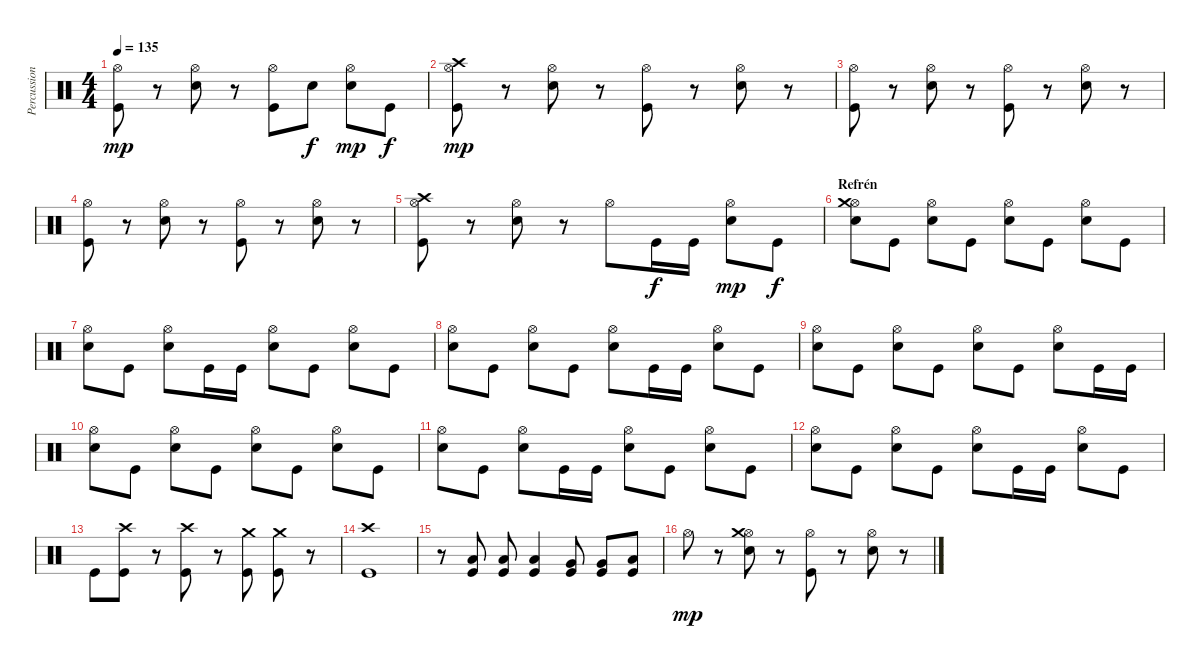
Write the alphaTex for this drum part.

\track ("Percussion" "Percussion") {instrument percussion}
\staff {score}
\articulation defaults
\ts (4 4)
\tempo 135
\clef neutral
\ks c
("Hi-Hat (open)" "Kick (hit)").8{dy mp} r.8 ("Hi-Hat (open)" "Snare (hit) 2").8 r.8 ("Hi-Hat (open)" "Kick (hit)").8 "Snare (hit) 2".8{dy f} ("Hi-Hat (open)" "Snare (hit) 2").8{dy mp} "Kick (hit)".8{dy f} |
("Hi-Hat (open)" "Crash high (hit)" "Kick (hit)").8{dy mp} r.8 ("Hi-Hat (open)" "Snare (hit) 2").8 r.8 ("Hi-Hat (open)" "Kick (hit)").8 r.8 ("Hi-Hat (open)" "Snare (hit) 2").8 r.8 |
("Hi-Hat (open)" "Kick (hit)").8 r.8 ("Hi-Hat (open)" "Snare (hit) 2").8 r.8 ("Hi-Hat (open)" "Kick (hit)").8 r.8 ("Hi-Hat (open)" "Snare (hit) 2").8 r.8 |
("Hi-Hat (open)" "Kick (hit)").8 r.8 ("Hi-Hat (open)" "Snare (hit) 2").8 r.8 ("Hi-Hat (open)" "Kick (hit)").8 r.8 ("Hi-Hat (open)" "Snare (hit) 2").8 r.8 |
("Hi-Hat (open)" "Crash high (hit)" "Kick (hit)").8 r.8 ("Hi-Hat (open)" "Snare (hit) 2").8 r.8 "Hi-Hat (open)".8 "Kick (hit)".16{dy f} "Kick (hit)".16 ("Hi-Hat (open)" "Snare (hit) 2").8{dy mp} "Kick (hit)".8{dy f} |
\section ("" "Refrén")
("Hi-Hat (open)" "Crash medium (hit)" "Snare (hit) 2").8 "Kick (hit)".8 ("Hi-Hat (open)" "Snare (hit) 2").8 "Kick (hit)".8 ("Hi-Hat (open)" "Snare (hit) 2").8 "Kick (hit)".8 ("Hi-Hat (open)" "Snare (hit) 2").8 "Kick (hit)".8 |
("Hi-Hat (open)" "Snare (hit) 2").8 "Kick (hit)".8 ("Hi-Hat (open)" "Snare (hit) 2").8 "Kick (hit)".16 "Kick (hit)".16 ("Hi-Hat (open)" "Snare (hit) 2").8 "Kick (hit)".8 ("Hi-Hat (open)" "Snare (hit) 2").8 "Kick (hit)".8 |
("Hi-Hat (open)" "Snare (hit) 2").8 "Kick (hit)".8 ("Hi-Hat (open)" "Snare (hit) 2").8 "Kick (hit)".8 ("Hi-Hat (open)" "Snare (hit) 2").8 "Kick (hit)".16 "Kick (hit)".16 ("Hi-Hat (open)" "Snare (hit) 2").8 "Kick (hit)".8 |
("Hi-Hat (open)" "Snare (hit) 2").8 "Kick (hit)".8 ("Hi-Hat (open)" "Snare (hit) 2").8 "Kick (hit)".8 ("Hi-Hat (open)" "Snare (hit) 2").8 "Kick (hit)".8 ("Hi-Hat (open)" "Snare (hit) 2").8 "Kick (hit)".16 "Kick (hit)".16 |
("Hi-Hat (open)" "Snare (hit) 2").8 "Kick (hit)".8 ("Hi-Hat (open)" "Snare (hit) 2").8 "Kick (hit)".8 ("Hi-Hat (open)" "Snare (hit) 2").8 "Kick (hit)".8 ("Hi-Hat (open)" "Snare (hit) 2").8 "Kick (hit)".8 |
("Hi-Hat (open)" "Snare (hit) 2").8 "Kick (hit)".8 ("Hi-Hat (open)" "Snare (hit) 2").8 "Kick (hit)".16 "Kick (hit)".16 ("Hi-Hat (open)" "Snare (hit) 2").8 "Kick (hit)".8 ("Hi-Hat (open)" "Snare (hit) 2").8 "Kick (hit)".8 |
("Hi-Hat (open)" "Snare (hit) 2").8 "Kick (hit)".8 ("Hi-Hat (open)" "Snare (hit) 2").8 "Kick (hit)".8 ("Hi-Hat (open)" "Snare (hit) 2").8 "Kick (hit)".16 "Kick (hit)".16 ("Hi-Hat (open)" "Snare (hit) 2").8 "Kick (hit)".8 |
"Kick (hit)".8 ("Crash high (hit)" "Kick (hit)").8 r.8 ("Crash high (hit)" "Kick (hit)").8 r.8 ("Crash medium (hit)" "Kick (hit)").8 ("Crash medium (hit)" "Kick (hit)").8 r.8 |
("Crash high (hit)" "Kick (hit)").1 |
r.8 ("Kick (hit)" "Low Tom (hit)").8 ("Kick (hit)" "Low Tom (hit)").8 ("Kick (hit)" "Low Tom (hit)").4 ("Kick (hit)" "Very Low Tom (hit)").8 ("Kick (hit)" "Very Low Tom (hit)").8 ("Kick (hit)" "Low Floor Tom (hit)").8 |
"Hi-Hat (open)".8{dy mp} r.8 ("Hi-Hat (open)" "Crash medium (hit)" "Snare (hit) 2").8 r.8 ("Hi-Hat (open)" "Kick (hit)").8 r.8 ("Hi-Hat (open)" "Snare (hit) 2").8 r.8
